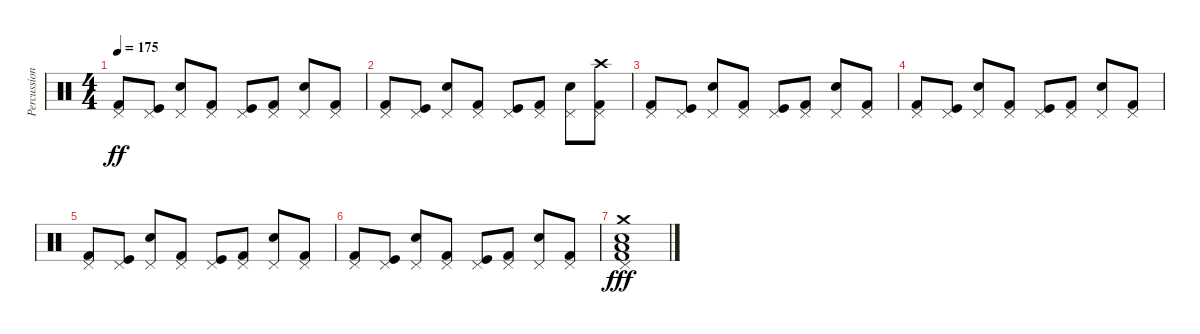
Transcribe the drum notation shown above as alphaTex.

\track ("Percussion (Karlo Žuliæ)" "Percussion") {instrument percussion}
\staff {score}
\articulation defaults
\ts (4 4)
\tempo 175
\clef neutral
\ks c
("Pedal Hi-Hat (hit)" "Kick (hit) 2").8{dy ff} ("Pedal Hi-Hat (hit)" "Kick (hit)").8 ("Pedal Hi-Hat (hit)" "Snare (hit) 2").8 ("Pedal Hi-Hat (hit)" "Kick (hit) 2").8 ("Pedal Hi-Hat (hit)" "Kick (hit)").8 ("Pedal Hi-Hat (hit)" "Kick (hit) 2").8 ("Pedal Hi-Hat (hit)" "Snare (hit) 2").8 ("Pedal Hi-Hat (hit)" "Kick (hit) 2").8 |
("Pedal Hi-Hat (hit)" "Kick (hit) 2").8 ("Pedal Hi-Hat (hit)" "Kick (hit)").8 ("Pedal Hi-Hat (hit)" "Snare (hit) 2").8 ("Pedal Hi-Hat (hit)" "Kick (hit) 2").8 ("Pedal Hi-Hat (hit)" "Kick (hit)").8 ("Pedal Hi-Hat (hit)" "Kick (hit) 2").8 ("Pedal Hi-Hat (hit)" "Snare (hit) 2").8 ("Pedal Hi-Hat (hit)" "Kick (hit) 2" "Crash high (hit)").8 |
("Pedal Hi-Hat (hit)" "Kick (hit) 2").8 ("Pedal Hi-Hat (hit)" "Kick (hit)").8 ("Pedal Hi-Hat (hit)" "Snare (hit) 2").8 ("Pedal Hi-Hat (hit)" "Kick (hit) 2").8 ("Pedal Hi-Hat (hit)" "Kick (hit)").8 ("Pedal Hi-Hat (hit)" "Kick (hit) 2").8 ("Pedal Hi-Hat (hit)" "Snare (hit) 2").8 ("Pedal Hi-Hat (hit)" "Kick (hit) 2").8 |
("Pedal Hi-Hat (hit)" "Kick (hit) 2").8 ("Pedal Hi-Hat (hit)" "Kick (hit)").8 ("Pedal Hi-Hat (hit)" "Snare (hit) 2").8 ("Pedal Hi-Hat (hit)" "Kick (hit) 2").8 ("Pedal Hi-Hat (hit)" "Kick (hit)").8 ("Pedal Hi-Hat (hit)" "Kick (hit) 2").8 ("Pedal Hi-Hat (hit)" "Snare (hit) 2").8 ("Pedal Hi-Hat (hit)" "Kick (hit) 2").8 |
("Pedal Hi-Hat (hit)" "Kick (hit) 2").8 ("Pedal Hi-Hat (hit)" "Kick (hit)").8 ("Pedal Hi-Hat (hit)" "Snare (hit) 2").8 ("Pedal Hi-Hat (hit)" "Kick (hit) 2").8 ("Pedal Hi-Hat (hit)" "Kick (hit)").8 ("Pedal Hi-Hat (hit)" "Kick (hit) 2").8 ("Pedal Hi-Hat (hit)" "Snare (hit) 2").8 ("Pedal Hi-Hat (hit)" "Kick (hit) 2").8 |
("Pedal Hi-Hat (hit)" "Kick (hit) 2").8 ("Pedal Hi-Hat (hit)" "Kick (hit)").8 ("Pedal Hi-Hat (hit)" "Snare (hit) 2").8 ("Pedal Hi-Hat (hit)" "Kick (hit) 2").8 ("Pedal Hi-Hat (hit)" "Kick (hit)").8 ("Pedal Hi-Hat (hit)" "Kick (hit) 2").8 ("Pedal Hi-Hat (hit)" "Snare (hit) 2").8 ("Pedal Hi-Hat (hit)" "Kick (hit) 2").8 |
("Crash medium (hit)" "Snare (hit) 2" "Kick (hit) 2" "Low Floor Tom (hit)" "Pedal Hi-Hat (hit)").1{dy fff}
